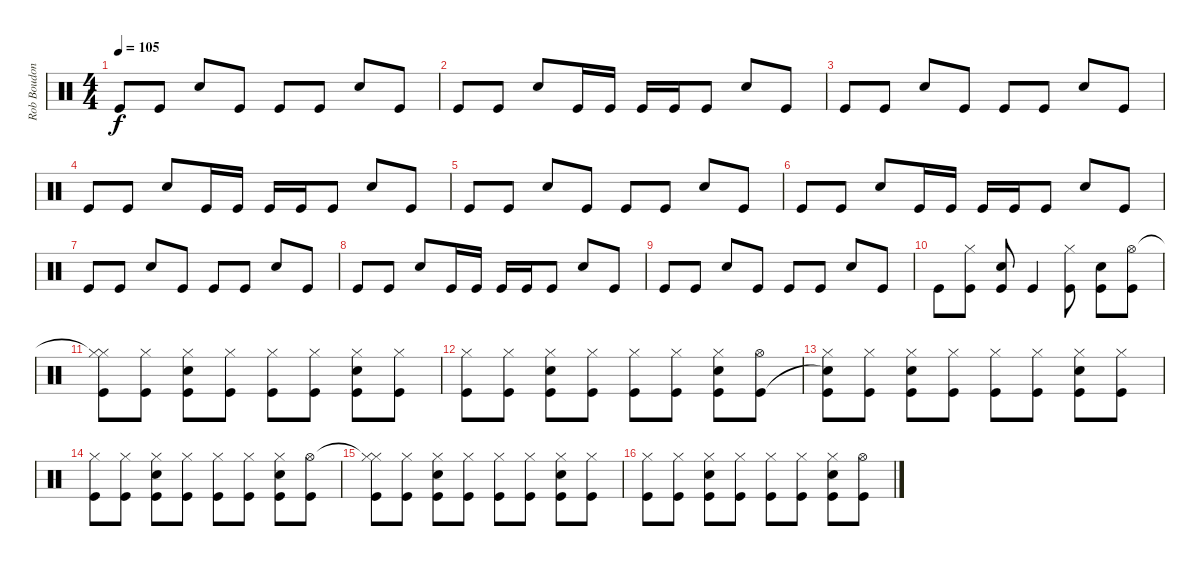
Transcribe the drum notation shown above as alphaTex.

\track ("Rob Boudon [Drums]" "Rob Boudon") {instrument percussion}
\staff {score}
\articulation defaults
\ts (4 4)
\tempo 105
\clef neutral
\ks c "Kick (hit)".8{dy f} "Kick (hit)".8 "Electric Snare (hit)".8 "Kick (hit)".8 "Kick (hit)".8 "Kick (hit)".8 "Electric Snare (hit)".8 "Kick (hit)".8
|
"Kick (hit)".8 "Kick (hit)".8 "Electric Snare (hit)".8 "Kick (hit)".16 "Kick (hit)".16 "Kick (hit)".16 "Kick (hit)".16 "Kick (hit)".8 "Electric Snare (hit)".8 "Kick (hit)".8 |
"Kick (hit)".8 "Kick (hit)".8 "Electric Snare (hit)".8 "Kick (hit)".8 "Kick (hit)".8 "Kick (hit)".8 "Electric Snare (hit)".8 "Kick (hit)".8 |
"Kick (hit)".8 "Kick (hit)".8 "Electric Snare (hit)".8 "Kick (hit)".16 "Kick (hit)".16 "Kick (hit)".16 "Kick (hit)".16 "Kick (hit)".8 "Electric Snare (hit)".8 "Kick (hit)".8 |
"Kick (hit)".8 "Kick (hit)".8 "Electric Snare (hit)".8 "Kick (hit)".8 "Kick (hit)".8 "Kick (hit)".8 "Electric Snare (hit)".8 "Kick (hit)".8 |
"Kick (hit)".8 "Kick (hit)".8 "Electric Snare (hit)".8 "Kick (hit)".16 "Kick (hit)".16 "Kick (hit)".16 "Kick (hit)".16 "Kick (hit)".8 "Electric Snare (hit)".8 "Kick (hit)".8 |
"Kick (hit)".8 "Kick (hit)".8 "Electric Snare (hit)".8 "Kick (hit)".8 "Kick (hit)".8 "Kick (hit)".8 "Electric Snare (hit)".8 "Kick (hit)".8 |
"Kick (hit)".8 "Kick (hit)".8 "Electric Snare (hit)".8 "Kick (hit)".16 "Kick (hit)".16 "Kick (hit)".16 "Kick (hit)".16 "Kick (hit)".8 "Electric Snare (hit)".8 "Kick (hit)".8 |
"Kick (hit)".8 "Kick (hit)".8 "Electric Snare (hit)".8 "Kick (hit)".8 "Kick (hit)".8 "Kick (hit)".8 "Electric Snare (hit)".8 "Kick (hit)".8 |
"Kick (hit)".8 ("Hi-Hat (closed)" "Kick (hit)").8 ("Electric Snare (hit)" "Kick (hit)").8 "Kick (hit)".4 ("Hi-Hat (closed)" "Kick (hit)").8 ("Electric Snare (hit)" "Kick (hit)").8 ("Hi-Hat (open)" "Kick (hit)").8 |
("Hi-Hat (closed)"{t} "Hi-Hat (closed)" "Kick (hit)").8 ("Hi-Hat (closed)" "Kick (hit)").8 ("Hi-Hat (closed)" "Electric Snare (hit)" "Kick (hit)").8 ("Hi-Hat (closed)" "Kick (hit)").8 ("Hi-Hat (closed)" "Kick (hit)").8 ("Hi-Hat (closed)" "Kick (hit)").8 ("Hi-Hat (closed)" "Electric Snare (hit)" "Kick (hit)").8 ("Hi-Hat (closed)" "Kick (hit)").8 |
("Hi-Hat (closed)" "Kick (hit)").8 ("Hi-Hat (closed)" "Kick (hit)").8 ("Hi-Hat (closed)" "Electric Snare (hit)" "Kick (hit)").8 ("Hi-Hat (closed)" "Kick (hit)").8 ("Hi-Hat (closed)" "Kick (hit)").8 ("Hi-Hat (closed)" "Kick (hit)").8 ("Hi-Hat (closed)" "Electric Snare (hit)" "Kick (hit)").8 ("Hi-Hat (open)" "Kick (hit)").8 |
("Hi-Hat (closed)" "Snare (hit)"{t} "Kick (hit)").8 ("Hi-Hat (closed)" "Kick (hit)").8 ("Hi-Hat (closed)" "Electric Snare (hit)" "Kick (hit)").8 ("Hi-Hat (closed)" "Kick (hit)").8 ("Hi-Hat (closed)" "Kick (hit)").8 ("Hi-Hat (closed)" "Kick (hit)").8 ("Hi-Hat (closed)" "Electric Snare (hit)" "Kick (hit)").8 ("Hi-Hat (closed)" "Kick (hit)").8 |
("Hi-Hat (closed)" "Kick (hit)").8 ("Hi-Hat (closed)" "Kick (hit)").8 ("Hi-Hat (closed)" "Electric Snare (hit)" "Kick (hit)").8 ("Hi-Hat (closed)" "Kick (hit)").8 ("Hi-Hat (closed)" "Kick (hit)").8 ("Hi-Hat (closed)" "Kick (hit)").8 ("Hi-Hat (closed)" "Electric Snare (hit)" "Kick (hit)").8 ("Hi-Hat (open)" "Kick (hit)").8 |
("Hi-Hat (closed)"{t} "Hi-Hat (closed)" "Kick (hit)").8 ("Hi-Hat (closed)" "Kick (hit)").8 ("Hi-Hat (closed)" "Electric Snare (hit)" "Kick (hit)").8 ("Hi-Hat (closed)" "Kick (hit)").8 ("Hi-Hat (closed)" "Kick (hit)").8 ("Hi-Hat (closed)" "Kick (hit)").8 ("Hi-Hat (closed)" "Electric Snare (hit)" "Kick (hit)").8 ("Hi-Hat (closed)" "Kick (hit)").8 |
("Hi-Hat (closed)" "Kick (hit)").8 ("Hi-Hat (closed)" "Kick (hit)").8 ("Hi-Hat (closed)" "Electric Snare (hit)" "Kick (hit)").8 ("Hi-Hat (closed)" "Kick (hit)").8 ("Hi-Hat (closed)" "Kick (hit)").8 ("Hi-Hat (closed)" "Kick (hit)").8 ("Hi-Hat (closed)" "Electric Snare (hit)" "Kick (hit)").8 ("Hi-Hat (open)" "Kick (hit)").8
